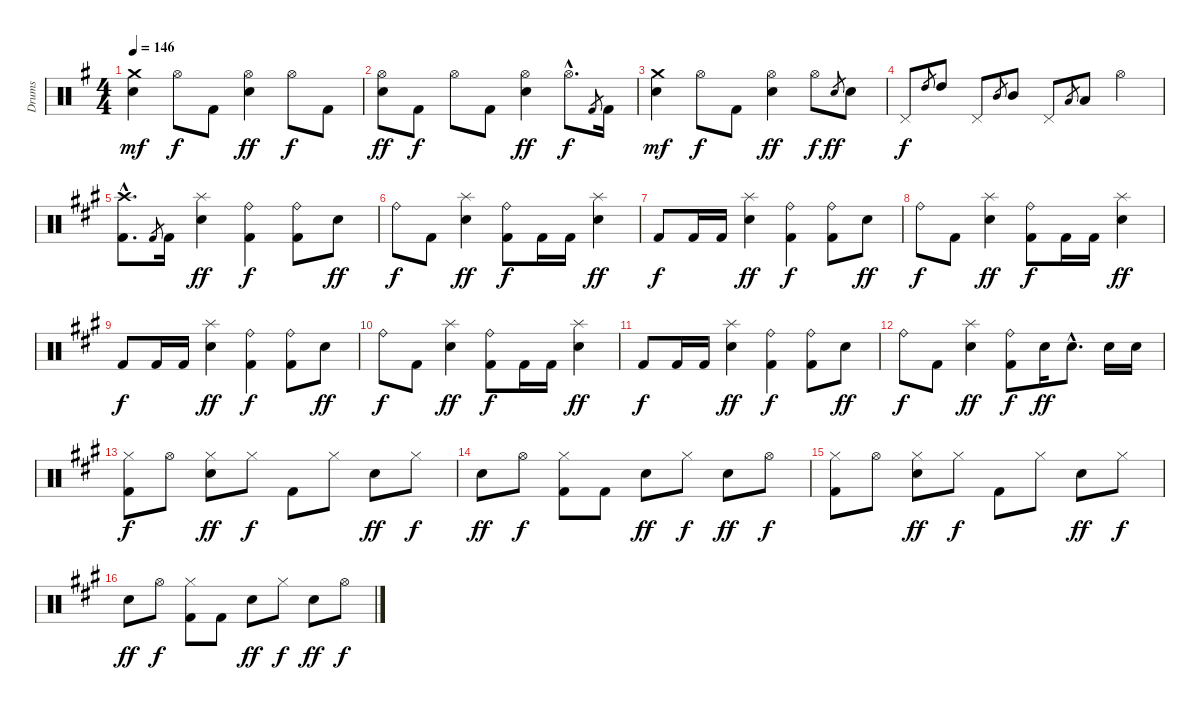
\track ("Drums" "Drums") {instrument percussion}
\staff {score}
\articulation defaults
\ts (4 4)
\tempo 146
\clef neutral
\ks g
("Electric Snare (hit)" "Crash medium (hit)").4{dy mf} "Hi-Hat (open)".8{dy f} "Kick (hit) 2".8 ("Electric Snare (hit)" "Hi-Hat (open)").4{dy ff} "Hi-Hat (open)".8{dy f} "Kick (hit) 2".8 |
("Electric Snare (hit)" "Hi-Hat (open)").8{dy ff} "Kick (hit) 2".8{dy f} "Hi-Hat (open)".8 "Kick (hit) 2".8 ("Electric Snare (hit)" "Hi-Hat (open)").4{dy ff} "Hi-Hat (open)"{hac}.8{d dy f} "Kick (hit) 2".8{gr} "Kick (hit) 2".16 |
("Electric Snare (hit)" "Crash medium (hit)").4{dy mf} "Hi-Hat (open)".8{dy f} "Kick (hit) 2".8 ("Electric Snare (hit)" "Hi-Hat (open)").4{dy ff} "Hi-Hat (open)".8{dy f} "Electric Snare (hit)".8{gr dy ff} "Electric Snare (hit)".8 |
"Pedal Hi-Hat (hit)".8{dy f} "High Tom (hit)".8{gr} "High Tom (hit)".8 "Pedal Hi-Hat (hit)".8 "Mid Tom (hit)".8{gr} "Mid Tom (hit)".8 "Pedal Hi-Hat (hit)".8 "Low Tom (hit)".8{gr} "Low Tom (hit)".8 "Hi-Hat (open)".4 |
\ks a
("Kick (hit) 2"{hac} "Crash high (hit)"{hac}).8{d} "Kick (hit) 2".8{gr} "Kick (hit) 2".16 ("Electric Snare (hit)" "Splash (hit)").4{dy ff} ("Kick (hit) 2" "Ride (bell)").4{dy f} ("Kick (hit) 2" "Ride (bell)").8 "Electric Snare (hit)".8{dy ff} |
"Ride (bell)".8{dy f} "Kick (hit) 2".8 ("Electric Snare (hit)" "Splash (hit)").4{dy ff} ("Kick (hit) 2" "Ride (bell)").8{dy f} "Kick (hit) 2".16 "Kick (hit) 2".16 ("Electric Snare (hit)" "Splash (hit)").4{dy ff} |
"Kick (hit) 2".8{dy f} "Kick (hit) 2".16 "Kick (hit) 2".16 ("Electric Snare (hit)" "Splash (hit)").4{dy ff} ("Kick (hit) 2" "Ride (bell)").4{dy f} ("Kick (hit) 2" "Ride (bell)").8 "Electric Snare (hit)".8{dy ff} |
"Ride (bell)".8{dy f} "Kick (hit) 2".8 ("Electric Snare (hit)" "Splash (hit)").4{dy ff} ("Kick (hit) 2" "Ride (bell)").8{dy f} "Kick (hit) 2".16 "Kick (hit) 2".16 ("Electric Snare (hit)" "Splash (hit)").4{dy ff} |
"Kick (hit) 2".8{dy f} "Kick (hit) 2".16 "Kick (hit) 2".16 ("Electric Snare (hit)" "Splash (hit)").4{dy ff} ("Kick (hit) 2" "Ride (bell)").4{dy f} ("Kick (hit) 2" "Ride (bell)").8 "Electric Snare (hit)".8{dy ff} |
"Ride (bell)".8{dy f} "Kick (hit) 2".8 ("Electric Snare (hit)" "Splash (hit)").4{dy ff} ("Kick (hit) 2" "Ride (bell)").8{dy f} "Kick (hit) 2".16 "Kick (hit) 2".16 ("Electric Snare (hit)" "Splash (hit)").4{dy ff} |
"Kick (hit) 2".8{dy f} "Kick (hit) 2".16 "Kick (hit) 2".16 ("Electric Snare (hit)" "Splash (hit)").4{dy ff} ("Kick (hit) 2" "Ride (bell)").4{dy f} ("Kick (hit) 2" "Ride (bell)").8 "Electric Snare (hit)".8{dy ff} |
"Ride (bell)".8{dy f} "Kick (hit) 2".8 ("Electric Snare (hit)" "Splash (hit)").4{dy ff} ("Kick (hit) 2" "Ride (bell)").8{dy f} "Electric Snare (hit)".16{dy ff} "Electric Snare (hit)"{hac}.8{d} "Electric Snare (hit)".16 "Electric Snare (hit)".16 |
("Kick (hit) 2" "Hi-Hat (closed)").8{dy f} "Hi-Hat (open)".8 ("Electric Snare (hit)" "Hi-Hat (closed)").8{dy ff} "Hi-Hat (closed)".8{dy f} "Kick (hit) 2".8 "Hi-Hat (closed)".8 "Electric Snare (hit)".8{dy ff} "Hi-Hat (closed)".8{dy f} |
"Electric Snare (hit)".8{dy ff} "Hi-Hat (open)".8{dy f} ("Kick (hit) 2" "Hi-Hat (closed)").8 "Kick (hit) 2".8 "Electric Snare (hit)".8{dy ff} "Hi-Hat (closed)".8{dy f} "Electric Snare (hit)".8{dy ff} "Hi-Hat (open)".8{dy f} |
("Kick (hit) 2" "Hi-Hat (closed)").8 "Hi-Hat (open)".8 ("Electric Snare (hit)" "Hi-Hat (closed)").8{dy ff} "Hi-Hat (closed)".8{dy f} "Kick (hit) 2".8 "Hi-Hat (closed)".8 "Electric Snare (hit)".8{dy ff} "Hi-Hat (closed)".8{dy f} |
"Electric Snare (hit)".8{dy ff} "Hi-Hat (open)".8{dy f} ("Kick (hit) 2" "Hi-Hat (closed)").8 "Kick (hit) 2".8 "Electric Snare (hit)".8{dy ff} "Hi-Hat (closed)".8{dy f} "Electric Snare (hit)".8{dy ff} "Hi-Hat (open)".8{dy f}
